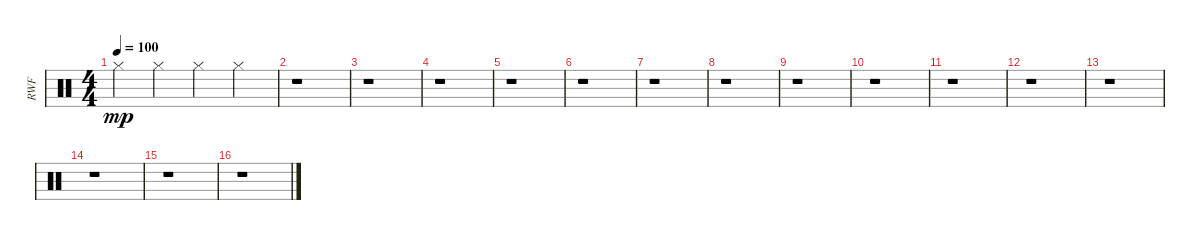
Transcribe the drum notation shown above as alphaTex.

\track ("RWF" "RWF") {instrument percussion}
\staff {score}
\articulation defaults
\ts (4 4)
\tempo 100
\clef neutral
\ks c "Hi-Hat (closed)".4{dy mp} "Hi-Hat (closed)".4 "Hi-Hat (closed)".4 "Hi-Hat (closed)".4
|
r.1 |
r.1 |
r.1 |
r.1 |
r.1 |
r.1 |
r.1 |
r.1 |
r.1 |
r.1 |
r.1 |
r.1 |
r.1 |
r.1 |
r.1
